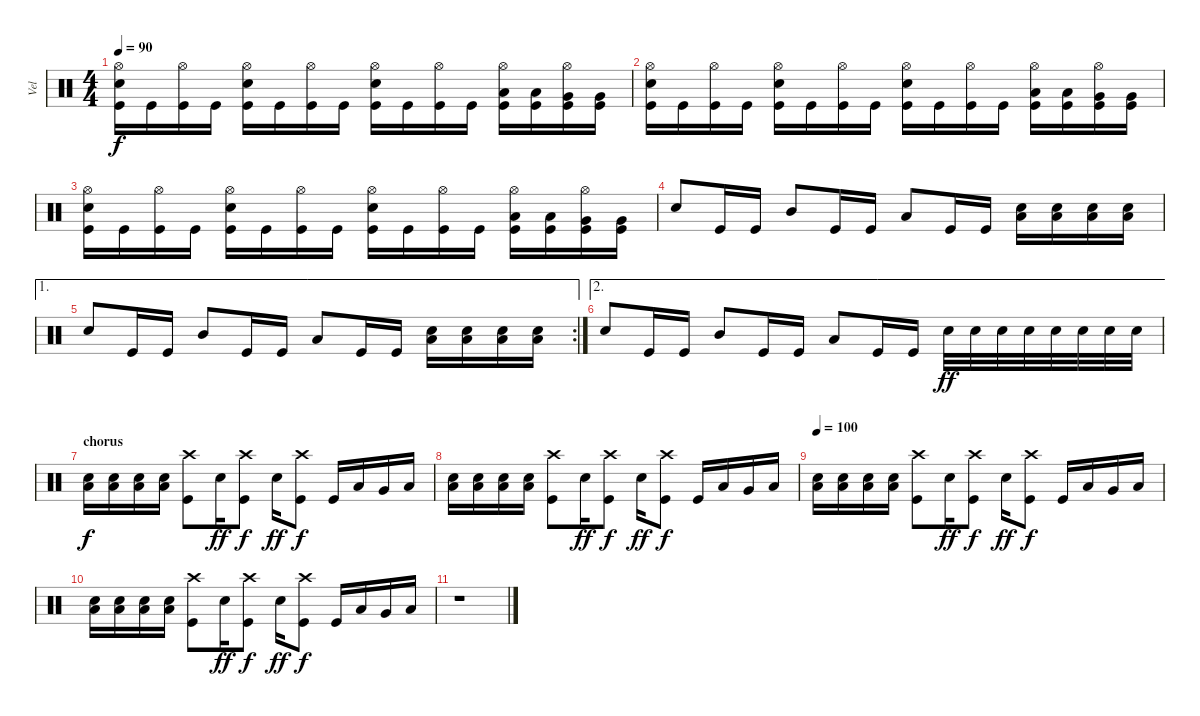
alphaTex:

\track ("Vel" "Vel") {instrument percussion}
\staff {score}
\articulation defaults
\ts (4 4)
\tempo 90
\clef neutral
\ks c
("Hi-Hat (open)" "Electric Snare (hit)" "Kick (hit)").16{dy f} "Kick (hit)".16 ("Hi-Hat (open)" "Kick (hit)").16 "Kick (hit)".16 ("Hi-Hat (open)" "Electric Snare (hit)" "Kick (hit)").16 "Kick (hit)".16 ("Hi-Hat (open)" "Kick (hit)").16 "Kick (hit)".16 ("Hi-Hat (open)" "Electric Snare (hit)" "Kick (hit)").16 "Kick (hit)".16 ("Hi-Hat (open)" "Kick (hit)").16 "Kick (hit)".16 ("Hi-Hat (open)" "Low Tom (hit)" "Kick (hit)").16 ("Low Tom (hit)" "Kick (hit)").16 ("Hi-Hat (open)" "Very Low Tom (hit)" "Kick (hit)").16 ("Very Low Tom (hit)" "Kick (hit)").16 |
("Hi-Hat (open)" "Electric Snare (hit)" "Kick (hit)").16 "Kick (hit)".16 ("Hi-Hat (open)" "Kick (hit)").16 "Kick (hit)".16 ("Hi-Hat (open)" "Electric Snare (hit)" "Kick (hit)").16 "Kick (hit)".16 ("Hi-Hat (open)" "Kick (hit)").16 "Kick (hit)".16 ("Hi-Hat (open)" "Electric Snare (hit)" "Kick (hit)").16 "Kick (hit)".16 ("Hi-Hat (open)" "Kick (hit)").16 "Kick (hit)".16 ("Hi-Hat (open)" "Low Tom (hit)" "Kick (hit)").16 ("Low Tom (hit)" "Kick (hit)").16 ("Hi-Hat (open)" "Very Low Tom (hit)" "Kick (hit)").16 ("Very Low Tom (hit)" "Kick (hit)").16 |
("Hi-Hat (open)" "Electric Snare (hit)" "Kick (hit)").16 "Kick (hit)".16 ("Hi-Hat (open)" "Kick (hit)").16 "Kick (hit)".16 ("Hi-Hat (open)" "Electric Snare (hit)" "Kick (hit)").16 "Kick (hit)".16 ("Hi-Hat (open)" "Kick (hit)").16 "Kick (hit)".16 ("Hi-Hat (open)" "Electric Snare (hit)" "Kick (hit)").16 "Kick (hit)".16 ("Hi-Hat (open)" "Kick (hit)").16 "Kick (hit)".16 ("Hi-Hat (open)" "Low Tom (hit)" "Kick (hit)").16 ("Low Tom (hit)" "Kick (hit)").16 ("Hi-Hat (open)" "Very Low Tom (hit)" "Kick (hit)").16 ("Very Low Tom (hit)" "Kick (hit)").16 |
"Electric Snare (hit)".8 "Kick (hit)".16 "Kick (hit)".16 "Mid Tom (hit)".8 "Kick (hit)".16 "Kick (hit)".16 "Low Tom (hit)".8 "Kick (hit)".16 "Kick (hit)".16 ("Low Floor Tom (hit)" "Electric Snare (hit)").16 ("Low Floor Tom (hit)" "Electric Snare (hit)").16 ("Low Floor Tom (hit)" "Electric Snare (hit)").16 ("Low Floor Tom (hit)" "Electric Snare (hit)").16 |
\ae 1
\rc 2 "Electric Snare (hit)".8 "Kick (hit)".16 "Kick (hit)".16 "Mid Tom (hit)".8 "Kick (hit)".16 "Kick (hit)".16 "Low Tom (hit)".8 "Kick (hit)".16 "Kick (hit)".16
("Low Floor Tom (hit)" "Electric Snare (hit)").16 ("Low Floor Tom (hit)" "Electric Snare (hit)").16 ("Low Floor Tom (hit)" "Electric Snare (hit)").16 ("Low Floor Tom (hit)" "Electric Snare (hit)").16 |
\ae 2 "Electric Snare (hit)".8 "Kick (hit)".16 "Kick (hit)".16 "Mid Tom (hit)".8 "Kick (hit)".16 "Kick (hit)".16 "Low Tom (hit)".8 "Kick (hit)".16 "Kick (hit)".16 "Electric Snare (hit)".32{dy ff} "Electric Snare (hit)".32 "Electric Snare (hit)".32 "Electric Snare (hit)".32 "Electric Snare (hit)".32 "Electric Snare (hit)".32 "Electric Snare (hit)".32 "Electric Snare (hit)".32
|
\section ("" "chorus")
("Low Floor Tom (hit)" "Electric Snare (hit)").16{dy f} ("Low Floor Tom (hit)" "Electric Snare (hit)").16 ("Low Floor Tom (hit)" "Electric Snare (hit)").16 ("Low Floor Tom (hit)" "Electric Snare (hit)").16 ("Crash high (hit)" "Kick (hit)").8 "Electric Snare (hit)".16{dy ff} ("Crash high (hit)" "Kick (hit)").8{dy f} "Electric Snare (hit)".16{dy ff} ("Crash high (hit)" "Kick (hit)").8{dy f} "Kick (hit)".16 "Low Tom (hit)".16 "Very Low Tom (hit)".16 "Low Floor Tom (hit)".16 |
("Low Floor Tom (hit)" "Electric Snare (hit)").16 ("Low Floor Tom (hit)" "Electric Snare (hit)").16 ("Low Floor Tom (hit)" "Electric Snare (hit)").16 ("Low Floor Tom (hit)" "Electric Snare (hit)").16 ("Crash high (hit)" "Kick (hit)").8 "Electric Snare (hit)".16{dy ff} ("Crash high (hit)" "Kick (hit)").8{dy f} "Electric Snare (hit)".16{dy ff} ("Crash high (hit)" "Kick (hit)").8{dy f} "Kick (hit)".16 "Low Tom (hit)".16 "Very Low Tom (hit)".16 "Low Floor Tom (hit)".16 |
\tempo 100
("Low Floor Tom (hit)" "Electric Snare (hit)").16 ("Low Floor Tom (hit)" "Electric Snare (hit)").16 ("Low Floor Tom (hit)" "Electric Snare (hit)").16 ("Low Floor Tom (hit)" "Electric Snare (hit)").16 ("Crash high (hit)" "Kick (hit)").8 "Electric Snare (hit)".16{dy ff} ("Crash high (hit)" "Kick (hit)").8{dy f} "Electric Snare (hit)".16{dy ff} ("Crash high (hit)" "Kick (hit)").8{dy f} "Kick (hit)".16 "Low Tom (hit)".16 "Very Low Tom (hit)".16 "Low Floor Tom (hit)".16 |
("Low Floor Tom (hit)" "Electric Snare (hit)").16 ("Low Floor Tom (hit)" "Electric Snare (hit)").16 ("Low Floor Tom (hit)" "Electric Snare (hit)").16 ("Low Floor Tom (hit)" "Electric Snare (hit)").16 ("Crash high (hit)" "Kick (hit)").8 "Electric Snare (hit)".16{dy ff} ("Crash high (hit)" "Kick (hit)").8{dy f} "Electric Snare (hit)".16{dy ff} ("Crash high (hit)" "Kick (hit)").8{dy f} "Kick (hit)".16 "Low Tom (hit)".16 "Very Low Tom (hit)".16 "Low Floor Tom (hit)".16 |
r.1
